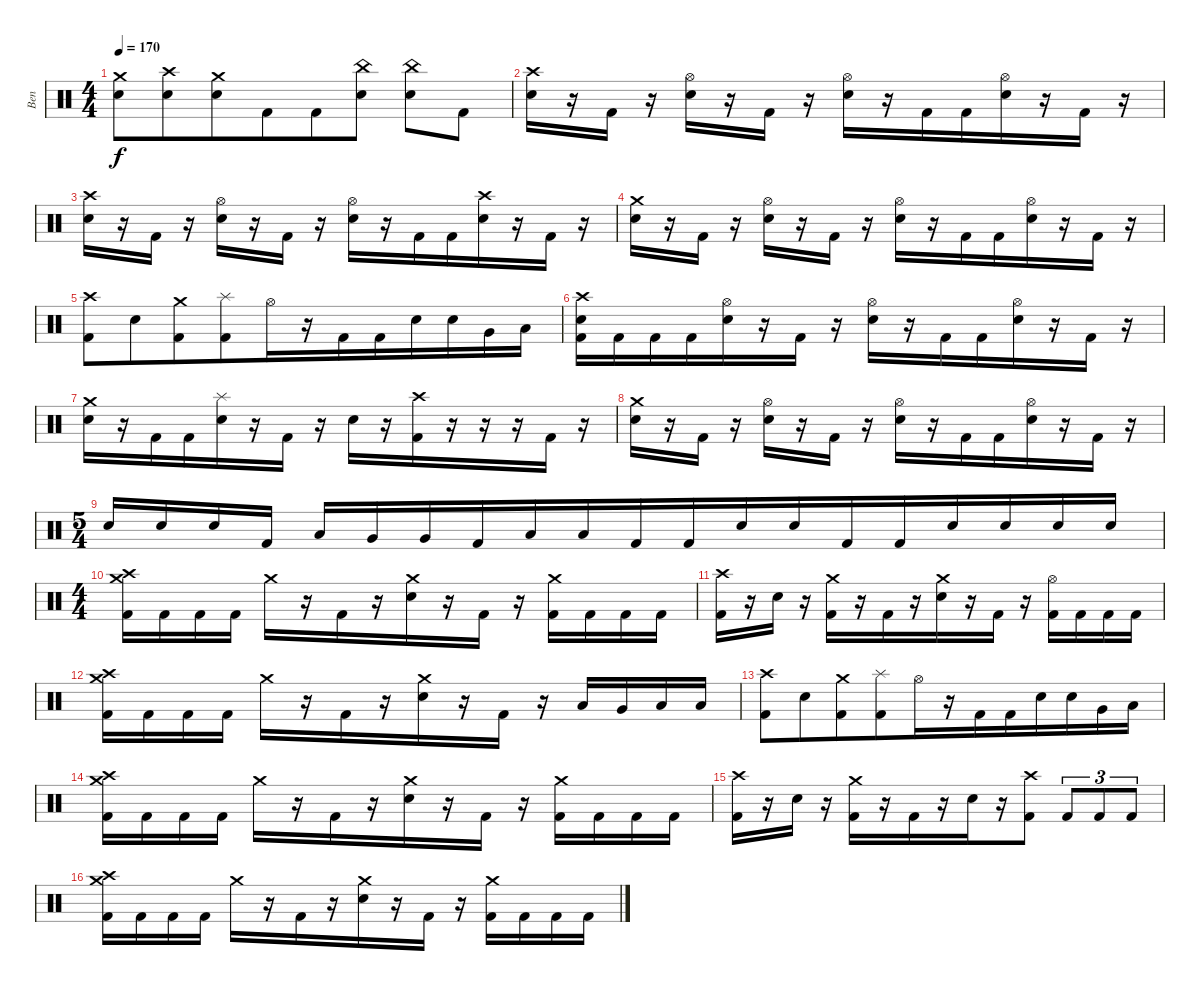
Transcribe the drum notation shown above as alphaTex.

\track ("Ben" "Ben") {instrument percussion}
\staff {score}
\articulation defaults
\ts (4 4)
\tempo 170
\clef neutral
\ks c
("Electric Snare (hit)" "Crash medium (hit)").8{dy f beam merge} ("Electric Snare (hit)" "Crash high (hit)").8{beam merge} ("Electric Snare (hit)" "Crash medium (hit)").8 "Kick (hit) 2".8{beam merge} "Kick (hit) 2".8 ("Electric Snare (hit)" "China (hit)").8 ("Electric Snare (hit)" "China (hit)").8 "Kick (hit) 2".8 |
("Crash high (hit)" "Electric Snare (hit)").16 r.16{beam merge} "Kick (hit) 2".16 r.16{beam merge} ("Hi-Hat (open)" "Electric Snare (hit)").16{beam merge} r.16{beam merge} "Kick (hit) 2".16 r.16{beam merge} ("Electric Snare (hit)" "Hi-Hat (open)").16{beam merge} r.16{beam merge} "Kick (hit) 2".16 "Kick (hit) 2".16{beam merge} ("Electric Snare (hit)" "Hi-Hat (open)").16{beam merge} r.16 "Kick (hit) 2".16{beam merge} r.16 |
("Crash high (hit)" "Electric Snare (hit)").16 r.16{beam merge} "Kick (hit) 2".16 r.16{beam merge} ("Hi-Hat (open)" "Electric Snare (hit)").16{beam merge} r.16{beam merge} "Kick (hit) 2".16 r.16{beam merge} ("Electric Snare (hit)" "Hi-Hat (open)").16{beam merge} r.16{beam merge} "Kick (hit) 2".16 "Kick (hit) 2".16{beam merge} ("Electric Snare (hit)" "Crash high (hit)").16{beam merge} r.16 "Kick (hit) 2".16{beam merge} r.16 |
("Crash medium (hit)" "Electric Snare (hit)").16 r.16{beam merge} "Kick (hit) 2".16 r.16{beam merge} ("Hi-Hat (open)" "Electric Snare (hit)").16{beam merge} r.16{beam merge} "Kick (hit) 2".16 r.16{beam merge} ("Electric Snare (hit)" "Hi-Hat (open)").16{beam merge} r.16{beam merge} "Kick (hit) 2".16 "Kick (hit) 2".16{beam merge} ("Electric Snare (hit)" "Hi-Hat (open)").16{beam merge} r.16 "Kick (hit) 2".16{beam merge} r.16 |
("Crash high (hit)" "Kick (hit) 2").8{beam merge} "Electric Snare (hit)".8{beam merge} ("Kick (hit) 2" "Crash medium (hit)").8 ("Kick (hit) 2" "Splash (hit)").8{beam merge} "Hi-Hat (open)".16 r.16 "Kick (hit) 2".16 "Kick (hit) 2".16{beam merge} "Electric Snare (hit)".16 "Electric Snare (hit)".16{beam merge} "Very Low Tom (hit)".16{beam merge} "Low Floor Tom (hit)".16 |
("Crash high (hit)" "Kick (hit) 2" "Electric Snare (hit)").16 "Kick (hit) 2".16{beam merge} "Kick (hit) 2".16 "Kick (hit) 2".16{beam merge} ("Hi-Hat (open)" "Electric Snare (hit)").16{beam merge} r.16{beam merge} "Kick (hit) 2".16 r.16{beam merge} ("Electric Snare (hit)" "Hi-Hat (open)").16{beam merge} r.16{beam merge} "Kick (hit) 2".16 "Kick (hit) 2".16{beam merge} ("Electric Snare (hit)" "Hi-Hat (open)").16{beam merge} r.16 "Kick (hit) 2".16{beam merge} r.16 |
("Crash medium (hit)" "Electric Snare (hit)").16 r.16{beam merge} "Kick (hit) 2".16 "Kick (hit) 2".16{beam merge} ("Splash (hit)" "Electric Snare (hit)").16{beam merge} r.16{beam merge} "Kick (hit) 2".16 r.16 "Electric Snare (hit)".16 r.16{beam merge} ("Crash high (hit)" "Kick (hit) 2").16{beam merge} r.16 r.16{beam merge} r.16{beam merge} "Kick (hit) 2".16{beam merge} r.16 |
("Crash medium (hit)" "Electric Snare (hit)").16 r.16{beam merge} "Kick (hit) 2".16 r.16{beam merge} ("Hi-Hat (open)" "Electric Snare (hit)").16{beam merge} r.16{beam merge} "Kick (hit) 2".16 r.16{beam merge} ("Electric Snare (hit)" "Hi-Hat (open)").16{beam merge} r.16{beam merge} "Kick (hit) 2".16 "Kick (hit) 2".16{beam merge} ("Electric Snare (hit)" "Hi-Hat (open)").16{beam merge} r.16 "Kick (hit) 2".16{beam merge} r.16 |
\ts (5 4)
"Electric Snare (hit)".16{beam merge} "Electric Snare (hit)".16 "Electric Snare (hit)".16{beam merge} "Kick (hit) 2".16 "Low Tom (hit)".16{beam merge} "Very Low Tom (hit)".16 "Very Low Tom (hit)".16 "Kick (hit) 2".16{beam merge} "Low Floor Tom (hit)".16 "Low Floor Tom (hit)".16 "Kick (hit) 2".16{beam merge} "Kick (hit) 2".16{beam merge} "Electric Snare (hit)".16{beam merge} "Electric Snare (hit)".16{beam merge} "Kick (hit) 2".16 "Kick (hit) 2".16{beam merge} "Electric Snare (hit)".16 "Electric Snare (hit)".16{beam merge} "Electric Snare (hit)".16 "Electric Snare (hit)".16 |
\ts (4 4)
("Kick (hit) 2" "Crash medium (hit)" "Crash high (hit)").16 "Kick (hit) 2".16{beam merge} "Kick (hit) 2".16 "Kick (hit) 2".16 "Crash medium (hit)".16{beam merge} r.16 "Kick (hit) 2".16{beam merge} r.16 ("Electric Snare (hit)" "Crash medium (hit)").16 r.16 "Kick (hit) 2".16 r.16 ("Kick (hit) 2" "Crash medium (hit)").16{beam merge} "Kick (hit) 2".16{beam merge} "Kick (hit) 2".16 "Kick (hit) 2".16 |
("Kick (hit) 2" "Crash high (hit)").16 r.16{beam merge} "Electric Snare (hit)".16 r.16 ("Crash medium (hit)" "Kick (hit) 2").16{beam merge} r.16 "Kick (hit) 2".16{beam merge} r.16 ("Electric Snare (hit)" "Crash medium (hit)").16 r.16 "Kick (hit) 2".16 r.16 ("Kick (hit) 2" "Hi-Hat (open)").16{beam merge} "Kick (hit) 2".16{beam merge} "Kick (hit) 2".16 "Kick (hit) 2".16 |
("Kick (hit) 2" "Crash medium (hit)" "Crash high (hit)").16 "Kick (hit) 2".16{beam merge} "Kick (hit) 2".16 "Kick (hit) 2".16 "Crash medium (hit)".16{beam merge} r.16 "Kick (hit) 2".16{beam merge} r.16 ("Electric Snare (hit)" "Crash medium (hit)").16 r.16 "Kick (hit) 2".16 r.16 "Low Tom (hit)".16{beam merge} "Very Low Tom (hit)".16{beam merge} "Low Floor Tom (hit)".16 "Low Floor Tom (hit)".16 |
("Crash high (hit)" "Kick (hit) 2").8{beam merge} "Electric Snare (hit)".8{beam merge} ("Kick (hit) 2" "Crash medium (hit)").8 ("Kick (hit) 2" "Splash (hit)").8{beam merge} "Hi-Hat (open)".16 r.16 "Kick (hit) 2".16 "Kick (hit) 2".16{beam merge} "Electric Snare (hit)".16 "Electric Snare (hit)".16{beam merge} "Very Low Tom (hit)".16{beam merge} "Low Floor Tom (hit)".16 |
("Kick (hit) 2" "Crash medium (hit)" "Crash high (hit)").16 "Kick (hit) 2".16{beam merge} "Kick (hit) 2".16 "Kick (hit) 2".16 "Crash medium (hit)".16{beam merge} r.16 "Kick (hit) 2".16{beam merge} r.16 ("Electric Snare (hit)" "Crash medium (hit)").16 r.16 "Kick (hit) 2".16 r.16 ("Kick (hit) 2" "Crash medium (hit)").16{beam merge} "Kick (hit) 2".16{beam merge} "Kick (hit) 2".16 "Kick (hit) 2".16 |
("Kick (hit) 2" "Crash high (hit)").16 r.16{beam merge} "Electric Snare (hit)".16 r.16 ("Crash medium (hit)" "Kick (hit) 2").16{beam merge} r.16 "Kick (hit) 2".16{beam merge} r.16 "Electric Snare (hit)".16 r.16 ("Kick (hit) 2" "Crash high (hit)").8 "Kick (hit) 2".8{tu (3 2) beam merge} "Kick (hit) 2".8{tu (3 2)} "Kick (hit) 2".8{tu (3 2)} |
("Kick (hit) 2" "Crash medium (hit)" "Crash high (hit)").16 "Kick (hit) 2".16{beam merge} "Kick (hit) 2".16 "Kick (hit) 2".16 "Crash medium (hit)".16{beam merge} r.16 "Kick (hit) 2".16{beam merge} r.16 ("Electric Snare (hit)" "Crash medium (hit)").16 r.16 "Kick (hit) 2".16 r.16 ("Kick (hit) 2" "Crash medium (hit)").16{beam merge} "Kick (hit) 2".16{beam merge} "Kick (hit) 2".16 "Kick (hit) 2".16
